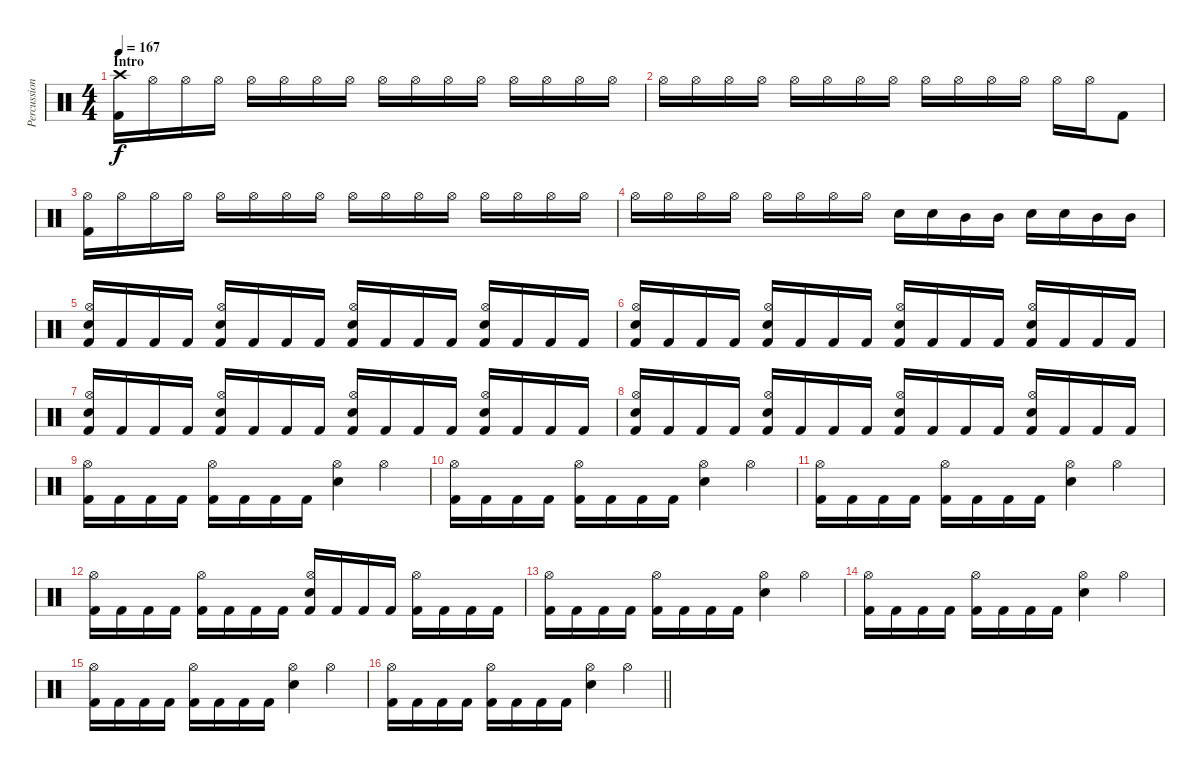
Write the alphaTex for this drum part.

\track ("Percussion" "Percussion") {instrument percussion}
\staff {score}
\articulation defaults
\ts (4 4)
\section ("" "Intro")
\tempo 167
\clef neutral
\ks c
("Crash high (hit)" "Kick (hit) 2").16{dy f} "Hi-Hat (open)".16 "Hi-Hat (open)".16 "Hi-Hat (open)".16 "Hi-Hat (open)".16 "Hi-Hat (open)".16 "Hi-Hat (open)".16 "Hi-Hat (open)".16 "Hi-Hat (open)".16 "Hi-Hat (open)".16 "Hi-Hat (open)".16 "Hi-Hat (open)".16 "Hi-Hat (open)".16 "Hi-Hat (open)".16 "Hi-Hat (open)".16 "Hi-Hat (open)".16 |
"Hi-Hat (open)".16 "Hi-Hat (open)".16 "Hi-Hat (open)".16 "Hi-Hat (open)".16 "Hi-Hat (open)".16 "Hi-Hat (open)".16 "Hi-Hat (open)".16 "Hi-Hat (open)".16 "Hi-Hat (open)".16 "Hi-Hat (open)".16 "Hi-Hat (open)".16 "Hi-Hat (open)".16 "Hi-Hat (open)".16 "Hi-Hat (open)".16 "Kick (hit) 2".8 |
("Hi-Hat (open)" "Kick (hit) 2").16 "Hi-Hat (open)".16 "Hi-Hat (open)".16 "Hi-Hat (open)".16 "Hi-Hat (open)".16 "Hi-Hat (open)".16 "Hi-Hat (open)".16 "Hi-Hat (open)".16 "Hi-Hat (open)".16 "Hi-Hat (open)".16 "Hi-Hat (open)".16 "Hi-Hat (open)".16 "Hi-Hat (open)".16 "Hi-Hat (open)".16 "Hi-Hat (open)".16 "Hi-Hat (open)".16 |
"Hi-Hat (open)".16 "Hi-Hat (open)".16 "Hi-Hat (open)".16 "Hi-Hat (open)".16 "Hi-Hat (open)".16 "Hi-Hat (open)".16 "Hi-Hat (open)".16 "Hi-Hat (open)".16 "Snare (hit) 2".16 "Snare (hit) 2".16 "Mid Tom (hit)".16 "Mid Tom (hit)".16 "Snare (hit) 2".16 "Snare (hit) 2".16 "Mid Tom (hit)".16 "Mid Tom (hit)".16 |
("Hi-Hat (open)" "Snare (hit) 2" "Kick (hit) 2").16 "Kick (hit) 2".16 "Kick (hit) 2".16 "Kick (hit) 2".16 ("Hi-Hat (open)" "Snare (hit) 2" "Kick (hit) 2").16 "Kick (hit) 2".16 "Kick (hit) 2".16 "Kick (hit) 2".16 ("Hi-Hat (open)" "Snare (hit) 2" "Kick (hit) 2").16 "Kick (hit) 2".16 "Kick (hit) 2".16 "Kick (hit) 2".16 ("Hi-Hat (open)" "Snare (hit) 2" "Kick (hit) 2").16 "Kick (hit) 2".16 "Kick (hit) 2".16 "Kick (hit) 2".16 |
("Hi-Hat (open)" "Snare (hit) 2" "Kick (hit) 2").16 "Kick (hit) 2".16 "Kick (hit) 2".16 "Kick (hit) 2".16 ("Hi-Hat (open)" "Snare (hit) 2" "Kick (hit) 2").16 "Kick (hit) 2".16 "Kick (hit) 2".16 "Kick (hit) 2".16 ("Hi-Hat (open)" "Snare (hit) 2" "Kick (hit) 2").16 "Kick (hit) 2".16 "Kick (hit) 2".16 "Kick (hit) 2".16 ("Hi-Hat (open)" "Snare (hit) 2" "Kick (hit) 2").16 "Kick (hit) 2".16 "Kick (hit) 2".16 "Kick (hit) 2".16 |
("Hi-Hat (open)" "Snare (hit) 2" "Kick (hit) 2").16 "Kick (hit) 2".16 "Kick (hit) 2".16 "Kick (hit) 2".16 ("Hi-Hat (open)" "Snare (hit) 2" "Kick (hit) 2").16 "Kick (hit) 2".16 "Kick (hit) 2".16 "Kick (hit) 2".16 ("Hi-Hat (open)" "Snare (hit) 2" "Kick (hit) 2").16 "Kick (hit) 2".16 "Kick (hit) 2".16 "Kick (hit) 2".16 ("Hi-Hat (open)" "Snare (hit) 2" "Kick (hit) 2").16 "Kick (hit) 2".16 "Kick (hit) 2".16 "Kick (hit) 2".16 |
("Hi-Hat (open)" "Snare (hit) 2" "Kick (hit) 2").16 "Kick (hit) 2".16 "Kick (hit) 2".16 "Kick (hit) 2".16 ("Hi-Hat (open)" "Snare (hit) 2" "Kick (hit) 2").16 "Kick (hit) 2".16 "Kick (hit) 2".16 "Kick (hit) 2".16 ("Hi-Hat (open)" "Snare (hit) 2" "Kick (hit) 2").16 "Kick (hit) 2".16 "Kick (hit) 2".16 "Kick (hit) 2".16 ("Hi-Hat (open)" "Snare (hit) 2" "Kick (hit) 2").16 "Kick (hit) 2".16 "Kick (hit) 2".16 "Kick (hit) 2".16 |
("Hi-Hat (open)" "Kick (hit) 2").16 "Kick (hit) 2".16 "Kick (hit) 2".16 "Kick (hit) 2".16 ("Hi-Hat (open)" "Kick (hit) 2").16 "Kick (hit) 2".16 "Kick (hit) 2".16 "Kick (hit) 2".16 ("Hi-Hat (open)" "Snare (hit) 2").4 "Hi-Hat (open)".4 |
("Hi-Hat (open)" "Kick (hit) 2").16 "Kick (hit) 2".16 "Kick (hit) 2".16 "Kick (hit) 2".16 ("Hi-Hat (open)" "Kick (hit) 2").16 "Kick (hit) 2".16 "Kick (hit) 2".16 "Kick (hit) 2".16 ("Hi-Hat (open)" "Snare (hit) 2").4 "Hi-Hat (open)".4 |
("Hi-Hat (open)" "Kick (hit) 2").16 "Kick (hit) 2".16 "Kick (hit) 2".16 "Kick (hit) 2".16 ("Hi-Hat (open)" "Kick (hit) 2").16 "Kick (hit) 2".16 "Kick (hit) 2".16 "Kick (hit) 2".16 ("Hi-Hat (open)" "Snare (hit) 2").4 "Hi-Hat (open)".4 |
("Hi-Hat (open)" "Kick (hit) 2").16 "Kick (hit) 2".16 "Kick (hit) 2".16 "Kick (hit) 2".16 ("Hi-Hat (open)" "Kick (hit) 2").16 "Kick (hit) 2".16 "Kick (hit) 2".16 "Kick (hit) 2".16 ("Hi-Hat (open)" "Snare (hit) 2" "Kick (hit) 2").16 "Kick (hit) 2".16 "Kick (hit) 2".16 "Kick (hit) 2".16 ("Hi-Hat (open)" "Kick (hit) 2").16 "Kick (hit) 2".16 "Kick (hit) 2".16 "Kick (hit) 2".16 |
("Hi-Hat (open)" "Kick (hit) 2").16 "Kick (hit) 2".16 "Kick (hit) 2".16 "Kick (hit) 2".16 ("Hi-Hat (open)" "Kick (hit) 2").16 "Kick (hit) 2".16 "Kick (hit) 2".16 "Kick (hit) 2".16 ("Hi-Hat (open)" "Snare (hit) 2").4 "Hi-Hat (open)".4 |
("Hi-Hat (open)" "Kick (hit) 2").16 "Kick (hit) 2".16 "Kick (hit) 2".16 "Kick (hit) 2".16 ("Hi-Hat (open)" "Kick (hit) 2").16 "Kick (hit) 2".16 "Kick (hit) 2".16 "Kick (hit) 2".16 ("Hi-Hat (open)" "Snare (hit) 2").4 "Hi-Hat (open)".4 |
("Hi-Hat (open)" "Kick (hit) 2").16 "Kick (hit) 2".16 "Kick (hit) 2".16 "Kick (hit) 2".16 ("Hi-Hat (open)" "Kick (hit) 2").16 "Kick (hit) 2".16 "Kick (hit) 2".16 "Kick (hit) 2".16 ("Hi-Hat (open)" "Snare (hit) 2").4 "Hi-Hat (open)".4 |
\barLineRight lightlight
("Hi-Hat (open)" "Kick (hit) 2").16 "Kick (hit) 2".16 "Kick (hit) 2".16 "Kick (hit) 2".16 ("Hi-Hat (open)" "Kick (hit) 2").16 "Kick (hit) 2".16 "Kick (hit) 2".16 "Kick (hit) 2".16 ("Hi-Hat (open)" "Snare (hit) 2").4 "Hi-Hat (open)".4
